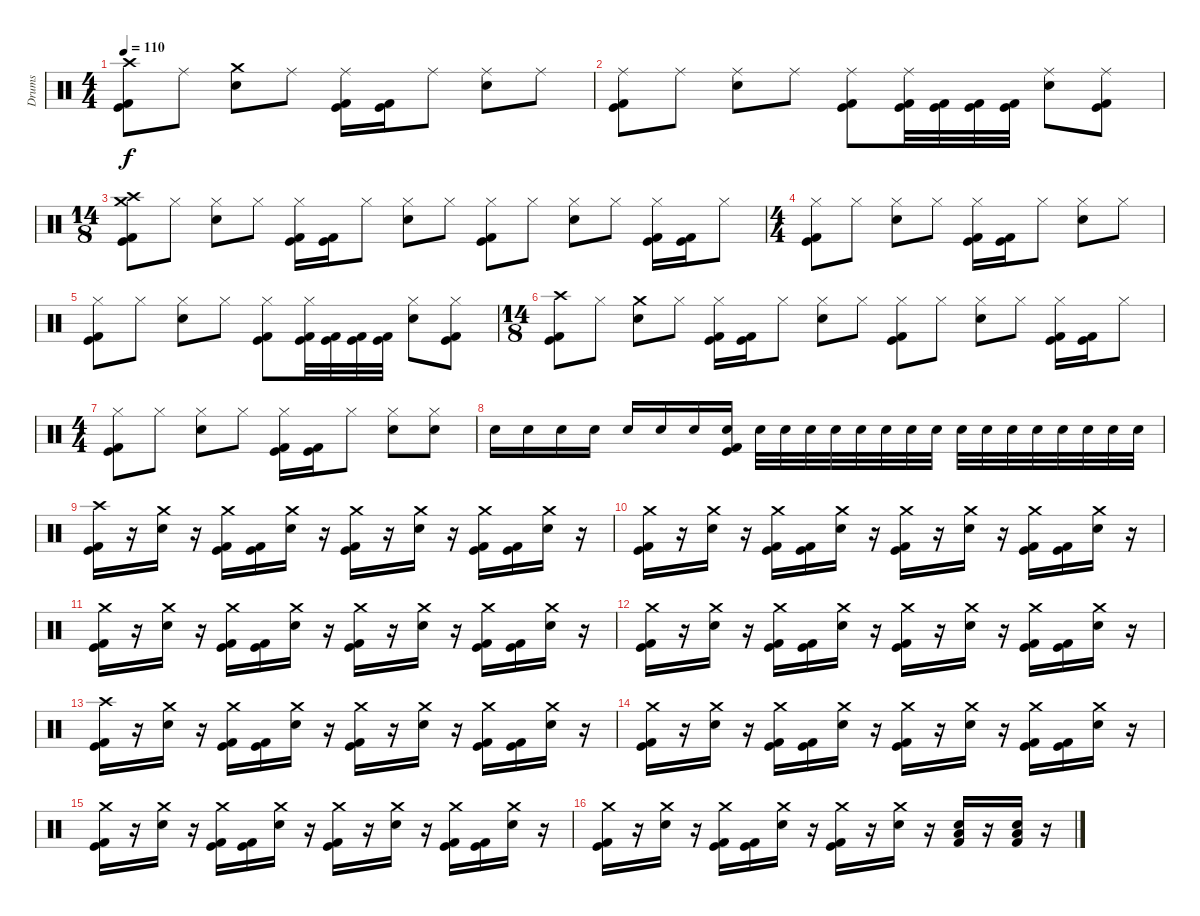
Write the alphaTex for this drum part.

\track ("Drums" "Drums") {instrument percussion}
\staff {score}
\articulation defaults
\ts (4 4)
\tempo 110
\clef neutral
\ks c
("Crash high (hit)" "Kick (hit)" "Kick (hit) 2").8{dy f} "Ride (middle)".8 ("Crash medium (hit)" "Electric Snare (hit)").8 "Ride (middle)".8 ("Ride (middle)" "Kick (hit)" "Kick (hit) 2").16 ("Kick (hit)" "Kick (hit) 2").16 "Ride (middle)".8 ("Ride (middle)" "Electric Snare (hit)").8 "Ride (middle)".8 |
("Ride (middle)" "Kick (hit)" "Kick (hit) 2").8 "Ride (middle)".8 ("Ride (middle)" "Electric Snare (hit)").8 "Ride (middle)".8 ("Ride (middle)" "Kick (hit)" "Kick (hit) 2").8 ("Ride (middle)" "Kick (hit)" "Kick (hit) 2").32 ("Kick (hit)" "Kick (hit) 2").32 ("Kick (hit)" "Kick (hit) 2").32 ("Kick (hit)" "Kick (hit) 2").32 ("Ride (middle)" "Electric Snare (hit)").8 ("Ride (middle)" "Kick (hit)" "Kick (hit) 2").8 |
\ts (14 8)
("Crash medium (hit)" "Crash high (hit)" "Kick (hit)" "Kick (hit) 2").8 "Hi-Hat (closed)".8 ("Hi-Hat (closed)" "Electric Snare (hit)").8 "Hi-Hat (closed)".8 ("Hi-Hat (closed)" "Kick (hit)" "Kick (hit) 2").16 ("Kick (hit)" "Kick (hit) 2").16 "Hi-Hat (closed)".8 ("Hi-Hat (closed)" "Electric Snare (hit)").8 "Hi-Hat (closed)".8 ("Hi-Hat (closed)" "Kick (hit)" "Kick (hit) 2").8 "Hi-Hat (closed)".8 ("Hi-Hat (closed)" "Electric Snare (hit)").8 "Hi-Hat (closed)".8 ("Hi-Hat (closed)" "Kick (hit)" "Kick (hit) 2").16 ("Kick (hit)" "Kick (hit) 2").16 "Hi-Hat (closed)".8 |
\ts (4 4)
("Hi-Hat (closed)" "Kick (hit)" "Kick (hit) 2").8 "Hi-Hat (closed)".8 ("Hi-Hat (closed)" "Electric Snare (hit)").8 "Hi-Hat (closed)".8 ("Hi-Hat (closed)" "Kick (hit)" "Kick (hit) 2").16 ("Kick (hit)" "Kick (hit) 2").16 "Hi-Hat (closed)".8 ("Hi-Hat (closed)" "Electric Snare (hit)").8 "Hi-Hat (closed)".8 |
("Hi-Hat (closed)" "Kick (hit)" "Kick (hit) 2").8 "Hi-Hat (closed)".8 ("Hi-Hat (closed)" "Electric Snare (hit)").8 "Hi-Hat (closed)".8 ("Hi-Hat (closed)" "Kick (hit)" "Kick (hit) 2").8 ("Hi-Hat (closed)" "Kick (hit)" "Kick (hit) 2").32 ("Kick (hit)" "Kick (hit) 2").32 ("Kick (hit)" "Kick (hit) 2").32 ("Kick (hit)" "Kick (hit) 2").32 ("Hi-Hat (closed)" "Electric Snare (hit)").8 ("Hi-Hat (closed)" "Kick (hit)" "Kick (hit) 2").8 |
\ts (14 8)
("Crash high (hit)" "Kick (hit)" "Kick (hit) 2").8 "Hi-Hat (closed)".8 ("Crash medium (hit)" "Electric Snare (hit)").8 "Hi-Hat (closed)".8 ("Hi-Hat (closed)" "Kick (hit)" "Kick (hit) 2").16 ("Kick (hit)" "Kick (hit) 2").16 "Hi-Hat (closed)".8 ("Hi-Hat (closed)" "Electric Snare (hit)").8 "Hi-Hat (closed)".8 ("Hi-Hat (closed)" "Kick (hit)" "Kick (hit) 2").8 "Hi-Hat (closed)".8 ("Hi-Hat (closed)" "Electric Snare (hit)").8 "Hi-Hat (closed)".8 ("Hi-Hat (closed)" "Kick (hit)" "Kick (hit) 2").16 ("Kick (hit)" "Kick (hit) 2").16 "Hi-Hat (closed)".8 |
\ts (4 4)
("Hi-Hat (closed)" "Kick (hit)" "Kick (hit) 2").8 "Hi-Hat (closed)".8 ("Hi-Hat (closed)" "Electric Snare (hit)").8 "Hi-Hat (closed)".8 ("Hi-Hat (closed)" "Kick (hit)" "Kick (hit) 2").16 ("Kick (hit)" "Kick (hit) 2").16 "Hi-Hat (closed)".8 ("Hi-Hat (closed)" "Electric Snare (hit)").8 ("Hi-Hat (closed)" "Electric Snare (hit)").8 |
"Electric Snare (hit)".16 "Electric Snare (hit)".16 "Electric Snare (hit)".16 "Electric Snare (hit)".16 "Electric Snare (hit)".16 "Electric Snare (hit)".16 "Electric Snare (hit)".16 ("Electric Snare (hit)" "Kick (hit)" "Kick (hit) 2").16 "Electric Snare (hit)".32 "Electric Snare (hit)".32 "Electric Snare (hit)".32 "Electric Snare (hit)".32 "Electric Snare (hit)".32 "Electric Snare (hit)".32 "Electric Snare (hit)".32 "Electric Snare (hit)".32 "Electric Snare (hit)".32 "Electric Snare (hit)".32 "Electric Snare (hit)".32 "Electric Snare (hit)".32 "Electric Snare (hit)".32 "Electric Snare (hit)".32 "Electric Snare (hit)".32 "Electric Snare (hit)".32 |
("Crash high (hit)" "Kick (hit)" "Kick (hit) 2").16 r.16 ("Crash medium (hit)" "Electric Snare (hit)").16 r.16 ("Crash medium (hit)" "Kick (hit)" "Kick (hit) 2").16 ("Kick (hit)" "Kick (hit) 2").16 ("Crash medium (hit)" "Electric Snare (hit)").16 r.16 ("Crash medium (hit)" "Kick (hit)" "Kick (hit) 2").16 r.16 ("Crash medium (hit)" "Electric Snare (hit)").16 r.16 ("Crash medium (hit)" "Kick (hit)" "Kick (hit) 2").16 ("Kick (hit)" "Kick (hit) 2").16 ("Crash medium (hit)" "Electric Snare (hit)").16 r.16 |
("Crash medium (hit)" "Kick (hit)" "Kick (hit) 2").16 r.16 ("Crash medium (hit)" "Electric Snare (hit)").16 r.16 ("Crash medium (hit)" "Kick (hit)" "Kick (hit) 2").16 ("Kick (hit)" "Kick (hit) 2").16 ("Crash medium (hit)" "Electric Snare (hit)").16 r.16 ("Crash medium (hit)" "Kick (hit)" "Kick (hit) 2").16 r.16 ("Crash medium (hit)" "Electric Snare (hit)").16 r.16 ("Crash medium (hit)" "Kick (hit)" "Kick (hit) 2").16 ("Kick (hit)" "Kick (hit) 2").16 ("Crash medium (hit)" "Electric Snare (hit)").16 r.16 |
("Crash medium (hit)" "Kick (hit)" "Kick (hit) 2").16 r.16 ("Crash medium (hit)" "Electric Snare (hit)").16 r.16 ("Crash medium (hit)" "Kick (hit)" "Kick (hit) 2").16 ("Kick (hit)" "Kick (hit) 2").16 ("Crash medium (hit)" "Electric Snare (hit)").16 r.16 ("Crash medium (hit)" "Kick (hit)" "Kick (hit) 2").16 r.16 ("Crash medium (hit)" "Electric Snare (hit)").16 r.16 ("Crash medium (hit)" "Kick (hit)" "Kick (hit) 2").16 ("Kick (hit)" "Kick (hit) 2").16 ("Crash medium (hit)" "Electric Snare (hit)").16 r.16 |
("Crash medium (hit)" "Kick (hit)" "Kick (hit) 2").16 r.16 ("Crash medium (hit)" "Electric Snare (hit)").16 r.16 ("Crash medium (hit)" "Kick (hit)" "Kick (hit) 2").16 ("Kick (hit)" "Kick (hit) 2").16 ("Crash medium (hit)" "Electric Snare (hit)").16 r.16 ("Crash medium (hit)" "Kick (hit)" "Kick (hit) 2").16 r.16 ("Crash medium (hit)" "Electric Snare (hit)").16 r.16 ("Crash medium (hit)" "Kick (hit)" "Kick (hit) 2").16 ("Kick (hit)" "Kick (hit) 2").16 ("Crash medium (hit)" "Electric Snare (hit)").16 r.16 |
("Crash high (hit)" "Kick (hit)" "Kick (hit) 2").16 r.16 ("Crash medium (hit)" "Electric Snare (hit)").16 r.16 ("Crash medium (hit)" "Kick (hit)" "Kick (hit) 2").16 ("Kick (hit)" "Kick (hit) 2").16 ("Crash medium (hit)" "Electric Snare (hit)").16 r.16 ("Crash medium (hit)" "Kick (hit)" "Kick (hit) 2").16 r.16 ("Crash medium (hit)" "Electric Snare (hit)").16 r.16 ("Crash medium (hit)" "Kick (hit)" "Kick (hit) 2").16 ("Kick (hit)" "Kick (hit) 2").16 ("Crash medium (hit)" "Electric Snare (hit)").16 r.16 |
("Crash medium (hit)" "Kick (hit)" "Kick (hit) 2").16 r.16 ("Crash medium (hit)" "Electric Snare (hit)").16 r.16 ("Crash medium (hit)" "Kick (hit)" "Kick (hit) 2").16 ("Kick (hit)" "Kick (hit) 2").16 ("Crash medium (hit)" "Electric Snare (hit)").16 r.16 ("Crash medium (hit)" "Kick (hit)" "Kick (hit) 2").16 r.16 ("Crash medium (hit)" "Electric Snare (hit)").16 r.16 ("Crash medium (hit)" "Kick (hit)" "Kick (hit) 2").16 ("Kick (hit)" "Kick (hit) 2").16 ("Crash medium (hit)" "Electric Snare (hit)").16 r.16 |
("Crash medium (hit)" "Kick (hit)" "Kick (hit) 2").16 r.16 ("Crash medium (hit)" "Electric Snare (hit)").16 r.16 ("Crash medium (hit)" "Kick (hit)" "Kick (hit) 2").16 ("Kick (hit)" "Kick (hit) 2").16 ("Crash medium (hit)" "Electric Snare (hit)").16 r.16 ("Crash medium (hit)" "Kick (hit)" "Kick (hit) 2").16 r.16 ("Crash medium (hit)" "Electric Snare (hit)").16 r.16 ("Crash medium (hit)" "Kick (hit)" "Kick (hit) 2").16 ("Kick (hit)" "Kick (hit) 2").16 ("Crash medium (hit)" "Electric Snare (hit)").16 r.16 |
("Crash medium (hit)" "Kick (hit)" "Kick (hit) 2").16 r.16 ("Crash medium (hit)" "Electric Snare (hit)").16 r.16 ("Crash medium (hit)" "Kick (hit)" "Kick (hit) 2").16 ("Kick (hit)" "Kick (hit) 2").16 ("Crash medium (hit)" "Electric Snare (hit)").16 r.16 ("Crash medium (hit)" "Kick (hit)" "Kick (hit) 2").16 r.16 ("Crash medium (hit)" "Electric Snare (hit)").16 r.16 ("Low Tom (hit)" "Electric Snare (hit)" "Kick (hit) 2").16 r.16 ("Low Tom (hit)" "Electric Snare (hit)" "Kick (hit) 2").16 r.16
